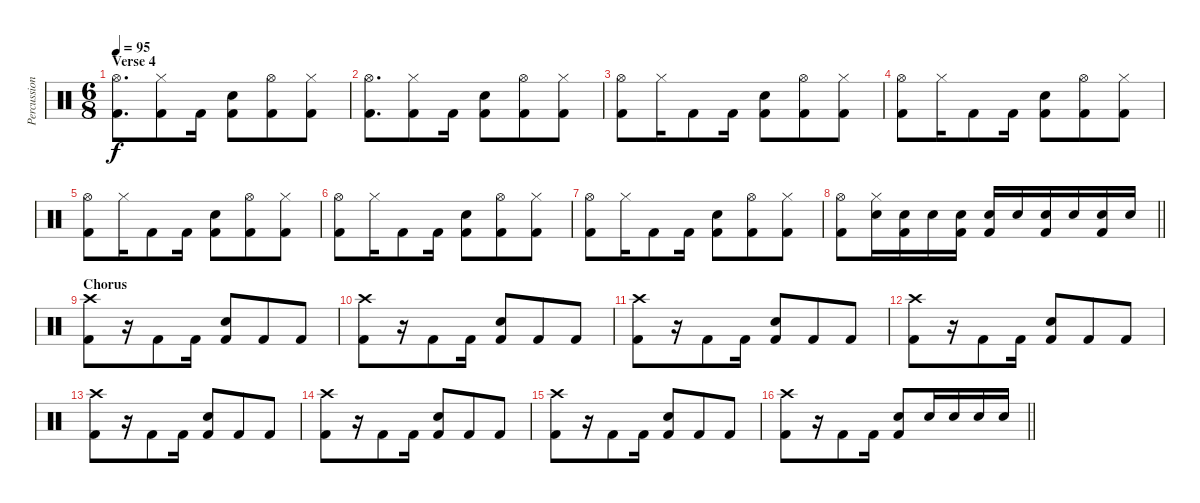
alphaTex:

\track ("Percussion" "Percussion") {instrument percussion}
\staff {score}
\articulation defaults
\ts (6 8)
\section ("" "Verse 4")
\tempo 95
\clef neutral
\ks c
("Hi-Hat (open)" "Kick (hit) 2").8{d dy f} ("Hi-Hat (closed)" "Kick (hit) 2").8 "Kick (hit) 2".16 ("Snare (hit) 2" "Kick (hit) 2").8 ("Hi-Hat (open)" "Kick (hit) 2").8 ("Hi-Hat (closed)" "Kick (hit) 2").8 |
("Hi-Hat (open)" "Kick (hit) 2").8{d} ("Hi-Hat (closed)" "Kick (hit) 2").8 "Kick (hit) 2".16 ("Snare (hit) 2" "Kick (hit) 2").8 ("Hi-Hat (open)" "Kick (hit) 2").8 ("Hi-Hat (closed)" "Kick (hit) 2").8 |
("Hi-Hat (open)" "Kick (hit) 2").8 "Hi-Hat (closed)".16 "Kick (hit) 2".8 "Kick (hit) 2".16 ("Snare (hit) 2" "Kick (hit) 2").8 ("Hi-Hat (open)" "Kick (hit) 2").8 ("Hi-Hat (closed)" "Kick (hit) 2").8 |
("Hi-Hat (open)" "Kick (hit) 2").8 "Hi-Hat (closed)".16 "Kick (hit) 2".8 "Kick (hit) 2".16 ("Snare (hit) 2" "Kick (hit) 2").8 ("Hi-Hat (open)" "Kick (hit) 2").8 ("Hi-Hat (closed)" "Kick (hit) 2").8 |
("Hi-Hat (open)" "Kick (hit) 2").8 "Hi-Hat (closed)".16 "Kick (hit) 2".8 "Kick (hit) 2".16 ("Snare (hit) 2" "Kick (hit) 2").8 ("Hi-Hat (open)" "Kick (hit) 2").8 ("Hi-Hat (closed)" "Kick (hit) 2").8 |
("Hi-Hat (open)" "Kick (hit) 2").8 "Hi-Hat (closed)".16 "Kick (hit) 2".8 "Kick (hit) 2".16 ("Snare (hit) 2" "Kick (hit) 2").8 ("Hi-Hat (open)" "Kick (hit) 2").8 ("Hi-Hat (closed)" "Kick (hit) 2").8 |
("Hi-Hat (open)" "Kick (hit) 2").8 "Hi-Hat (closed)".16 "Kick (hit) 2".8 "Kick (hit) 2".16 ("Snare (hit) 2" "Kick (hit) 2").8 ("Hi-Hat (open)" "Kick (hit) 2").8 ("Hi-Hat (closed)" "Kick (hit) 2").8 |
\barLineRight lightlight
("Hi-Hat (open)" "Kick (hit) 2").8 ("Hi-Hat (closed)" "Snare (hit) 2").16 ("Snare (hit) 2" "Kick (hit) 2").16 "Snare (hit) 2".16 ("Snare (hit) 2" "Kick (hit) 2").16 ("Snare (hit) 2" "Kick (hit) 2").16 "Snare (hit) 2".16 ("Snare (hit) 2" "Kick (hit) 2").16 "Snare (hit) 2".16 ("Snare (hit) 2" "Kick (hit) 2").16 "Snare (hit) 2".16 |
\section ("" "Chorus")
("Crash high (hit)" "Kick (hit) 2").8 r.16 "Kick (hit) 2".8 "Kick (hit) 2".16 ("Snare (hit) 2" "Kick (hit) 2").8 "Kick (hit) 2".8 "Kick (hit) 2".8 |
("Crash high (hit)" "Kick (hit) 2").8 r.16 "Kick (hit) 2".8 "Kick (hit) 2".16 ("Snare (hit) 2" "Kick (hit) 2").8 "Kick (hit) 2".8 "Kick (hit) 2".8 |
("Crash high (hit)" "Kick (hit) 2").8 r.16 "Kick (hit) 2".8 "Kick (hit) 2".16 ("Snare (hit) 2" "Kick (hit) 2").8 "Kick (hit) 2".8 "Kick (hit) 2".8 |
("Crash high (hit)" "Kick (hit) 2").8 r.16 "Kick (hit) 2".8 "Kick (hit) 2".16 ("Snare (hit) 2" "Kick (hit) 2").8 "Kick (hit) 2".8 "Kick (hit) 2".8 |
("Crash high (hit)" "Kick (hit) 2").8 r.16 "Kick (hit) 2".8 "Kick (hit) 2".16 ("Snare (hit) 2" "Kick (hit) 2").8 "Kick (hit) 2".8 "Kick (hit) 2".8 |
("Crash high (hit)" "Kick (hit) 2").8 r.16 "Kick (hit) 2".8 "Kick (hit) 2".16 ("Snare (hit) 2" "Kick (hit) 2").8 "Kick (hit) 2".8 "Kick (hit) 2".8 |
("Crash high (hit)" "Kick (hit) 2").8 r.16 "Kick (hit) 2".8 "Kick (hit) 2".16 ("Snare (hit) 2" "Kick (hit) 2").8 "Kick (hit) 2".8 "Kick (hit) 2".8 |
\barLineRight lightlight
("Crash high (hit)" "Kick (hit) 2").8 r.16 "Kick (hit) 2".8 "Kick (hit) 2".16 ("Snare (hit) 2" "Kick (hit) 2").8 "Snare (hit) 2".16 "Snare (hit) 2".16 "Snare (hit) 2".16 "Snare (hit) 2".16
